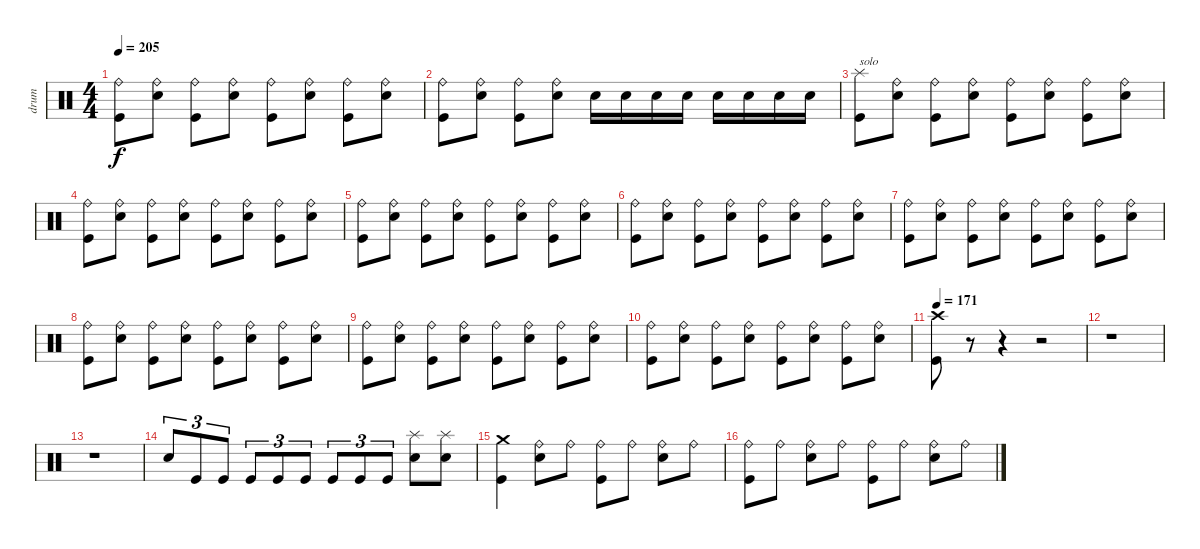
\track ("drum" "drum") {instrument percussion}
\staff {score}
\articulation defaults
\ts (4 4)
\tempo 205
\clef neutral
\ks c
("Kick (hit)" "Ride (bell)").8{dy f} ("Electric Snare (hit)" "Ride (bell)").8 ("Kick (hit)" "Ride (bell)").8 ("Electric Snare (hit)" "Ride (bell)").8 ("Kick (hit)" "Ride (bell)").8 ("Electric Snare (hit)" "Ride (bell)").8 ("Kick (hit)" "Ride (bell)").8 ("Electric Snare (hit)" "Ride (bell)").8 |
("Kick (hit)" "Ride (bell)").8 ("Electric Snare (hit)" "Ride (bell)").8 ("Kick (hit)" "Ride (bell)").8 ("Electric Snare (hit)" "Ride (bell)").8 "Electric Snare (hit)".16 "Electric Snare (hit)".16 "Electric Snare (hit)".16 "Electric Snare (hit)".16 "Electric Snare (hit)".16 "Electric Snare (hit)".16 "Electric Snare (hit)".16 "Electric Snare (hit)".16 |
("Kick (hit)" "Splash (hit)").8{txt "solo"} ("Electric Snare (hit)" "Ride (bell)").8 ("Kick (hit)" "Ride (bell)").8 ("Electric Snare (hit)" "Ride (bell)").8 ("Kick (hit)" "Ride (bell)").8 ("Electric Snare (hit)" "Ride (bell)").8 ("Kick (hit)" "Ride (bell)").8 ("Electric Snare (hit)" "Ride (bell)").8 |
("Kick (hit)" "Ride (bell)").8 ("Electric Snare (hit)" "Ride (bell)").8 ("Kick (hit)" "Ride (bell)").8 ("Electric Snare (hit)" "Ride (bell)").8 ("Kick (hit)" "Ride (bell)").8 ("Electric Snare (hit)" "Ride (bell)").8 ("Kick (hit)" "Ride (bell)").8 ("Electric Snare (hit)" "Ride (bell)").8 |
("Kick (hit)" "Ride (bell)").8 ("Electric Snare (hit)" "Ride (bell)").8 ("Kick (hit)" "Ride (bell)").8 ("Electric Snare (hit)" "Ride (bell)").8 ("Kick (hit)" "Ride (bell)").8 ("Electric Snare (hit)" "Ride (bell)").8 ("Kick (hit)" "Ride (bell)").8 ("Electric Snare (hit)" "Ride (bell)").8 |
("Kick (hit)" "Ride (bell)").8 ("Electric Snare (hit)" "Ride (bell)").8 ("Kick (hit)" "Ride (bell)").8 ("Electric Snare (hit)" "Ride (bell)").8 ("Kick (hit)" "Ride (bell)").8 ("Electric Snare (hit)" "Ride (bell)").8 ("Kick (hit)" "Ride (bell)").8 ("Electric Snare (hit)" "Ride (bell)").8 |
("Kick (hit)" "Ride (bell)").8 ("Electric Snare (hit)" "Ride (bell)").8 ("Kick (hit)" "Ride (bell)").8 ("Electric Snare (hit)" "Ride (bell)").8 ("Kick (hit)" "Ride (bell)").8 ("Electric Snare (hit)" "Ride (bell)").8 ("Kick (hit)" "Ride (bell)").8 ("Electric Snare (hit)" "Ride (bell)").8 |
("Kick (hit)" "Ride (bell)").8 ("Electric Snare (hit)" "Ride (bell)").8 ("Kick (hit)" "Ride (bell)").8 ("Electric Snare (hit)" "Ride (bell)").8 ("Kick (hit)" "Ride (bell)").8 ("Electric Snare (hit)" "Ride (bell)").8 ("Kick (hit)" "Ride (bell)").8 ("Electric Snare (hit)" "Ride (bell)").8 |
("Kick (hit)" "Ride (bell)").8 ("Electric Snare (hit)" "Ride (bell)").8 ("Kick (hit)" "Ride (bell)").8 ("Electric Snare (hit)" "Ride (bell)").8 ("Kick (hit)" "Ride (bell)").8 ("Electric Snare (hit)" "Ride (bell)").8 ("Kick (hit)" "Ride (bell)").8 ("Electric Snare (hit)" "Ride (bell)").8 |
("Kick (hit)" "Ride (bell)").8 ("Electric Snare (hit)" "Ride (bell)").8 ("Kick (hit)" "Ride (bell)").8 ("Electric Snare (hit)" "Ride (bell)").8 ("Kick (hit)" "Ride (bell)").8 ("Electric Snare (hit)" "Ride (bell)").8 ("Kick (hit)" "Ride (bell)").8 ("Electric Snare (hit)" "Ride (bell)").8 |
\tempo 171
("Kick (hit)" "Crash high (hit)").8 r.8 r.4 r.2 |
r.1 |
r.1 |
"Electric Snare (hit)".8{tu (3 2)} "Kick (hit)".8{tu (3 2)} "Kick (hit)".8{tu (3 2)} "Kick (hit)".8{tu (3 2)} "Kick (hit)".8{tu (3 2)} "Kick (hit)".8{tu (3 2)} "Kick (hit)".8{tu (3 2)} "Kick (hit)".8{tu (3 2)} "Kick (hit)".8{tu (3 2)} ("Electric Snare (hit)" "Splash (hit)").8 ("Electric Snare (hit)" "Splash (hit)").8 |
("Kick (hit)" "Crash medium (hit)").4 ("Electric Snare (hit)" "Ride (bell)").8 "Ride (bell)".8 ("Kick (hit)" "Ride (bell)").8 "Ride (bell)".8 ("Electric Snare (hit)" "Ride (bell)").8 "Ride (bell)".8 |
("Kick (hit)" "Ride (bell)").8 "Ride (bell)".8 ("Electric Snare (hit)" "Ride (bell)").8 "Ride (bell)".8 ("Kick (hit)" "Ride (bell)").8 "Ride (bell)".8 ("Electric Snare (hit)" "Ride (bell)").8 "Ride (bell)".8
